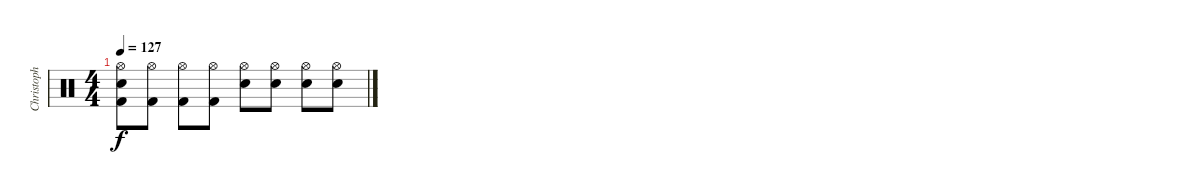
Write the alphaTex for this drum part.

\track ("Christoph Doom Schneider - Drums" "Christoph ") {instrument percussion}
\staff {score}
\articulation defaults
\ts (4 4)
\tempo 127
\clef neutral
\ks c
("Hi-Hat (open)" "Electric Snare (hit)" "Kick (hit) 2").8{dy f} ("Hi-Hat (open)" "Kick (hit) 2").8 ("Hi-Hat (open)" "Kick (hit) 2").8 ("Hi-Hat (open)" "Kick (hit) 2").8 ("Hi-Hat (open)" "Electric Snare (hit)").8 ("Hi-Hat (open)" "Electric Snare (hit)").8 ("Hi-Hat (open)" "Electric Snare (hit)").8 ("Hi-Hat (open)" "Electric Snare (hit)").8
